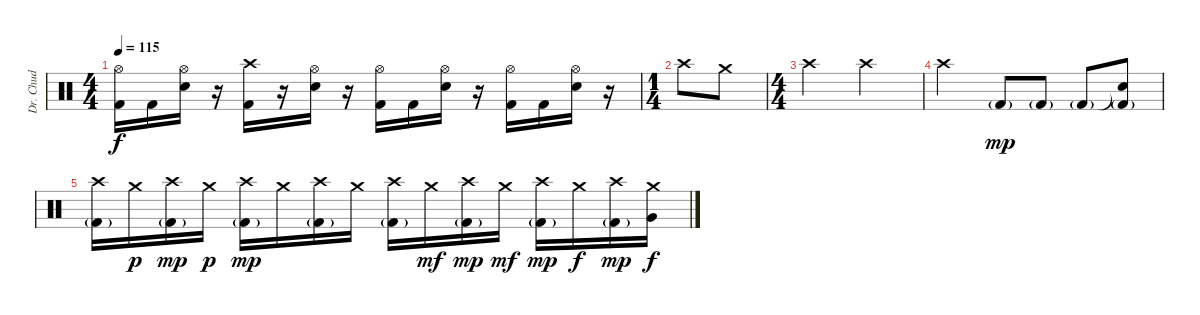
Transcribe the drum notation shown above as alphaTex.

\track ("Dr. Chud" "Dr. Chud") {instrument percussion}
\staff {score}
\articulation defaults
\ts (4 4)
\tempo 115
\clef neutral
\ks c
("Hi-Hat (open)" "Kick (hit) 2").16{dy f} "Kick (hit) 2".16 ("Hi-Hat (open)" "Snare (hit) 2").16 r.16 ("Crash high (hit)" "Kick (hit) 2").16 r.16 ("Hi-Hat (open)" "Snare (hit) 2").16 r.16 ("Hi-Hat (open)" "Kick (hit) 2").16 "Kick (hit) 2".16 ("Hi-Hat (open)" "Snare (hit) 2").16 r.16 ("Hi-Hat (open)" "Kick (hit) 2").16 "Kick (hit) 2".16 ("Hi-Hat (open)" "Snare (hit) 2").16 r.16 |
\ts (1 4)
"Crash high (hit)".8 "Crash medium (hit)".8 |
\ts (4 4)
"Crash high (hit)".2 "Crash high (hit)".2 |
"Crash high (hit)".2 "Kick (hit) 2"{g}.8{dy mp} "Kick (hit) 2"{g}.8 "Kick (hit) 2"{g}.8 ("Snare (hit)"{t} "Kick (hit) 2"{g}).8 |
("Crash high (hit)" "Kick (hit) 2"{g}).16 "Crash medium (hit)".16{dy p} ("Crash high (hit)" "Kick (hit) 2"{g}).16{dy mp} "Crash medium (hit)".16{dy p} ("Crash high (hit)" "Kick (hit) 2"{g}).16{dy mp} "Crash medium (hit)".16 ("Crash high (hit)" "Kick (hit) 2"{g}).16 "Crash medium (hit)".16 ("Crash high (hit)" "Kick (hit) 2"{g}).16 "Crash medium (hit)".16{dy mf} ("Crash high (hit)" "Kick (hit) 2"{g}).16{dy mp} "Crash medium (hit)".16{dy mf} ("Crash high (hit)" "Kick (hit) 2"{g}).16{dy mp} "Crash medium (hit)".16{dy f} ("Crash high (hit)" "Kick (hit) 2"{g}).16{dy mp} ("Crash medium (hit)" "Very Low Tom (hit)").16{dy f}
